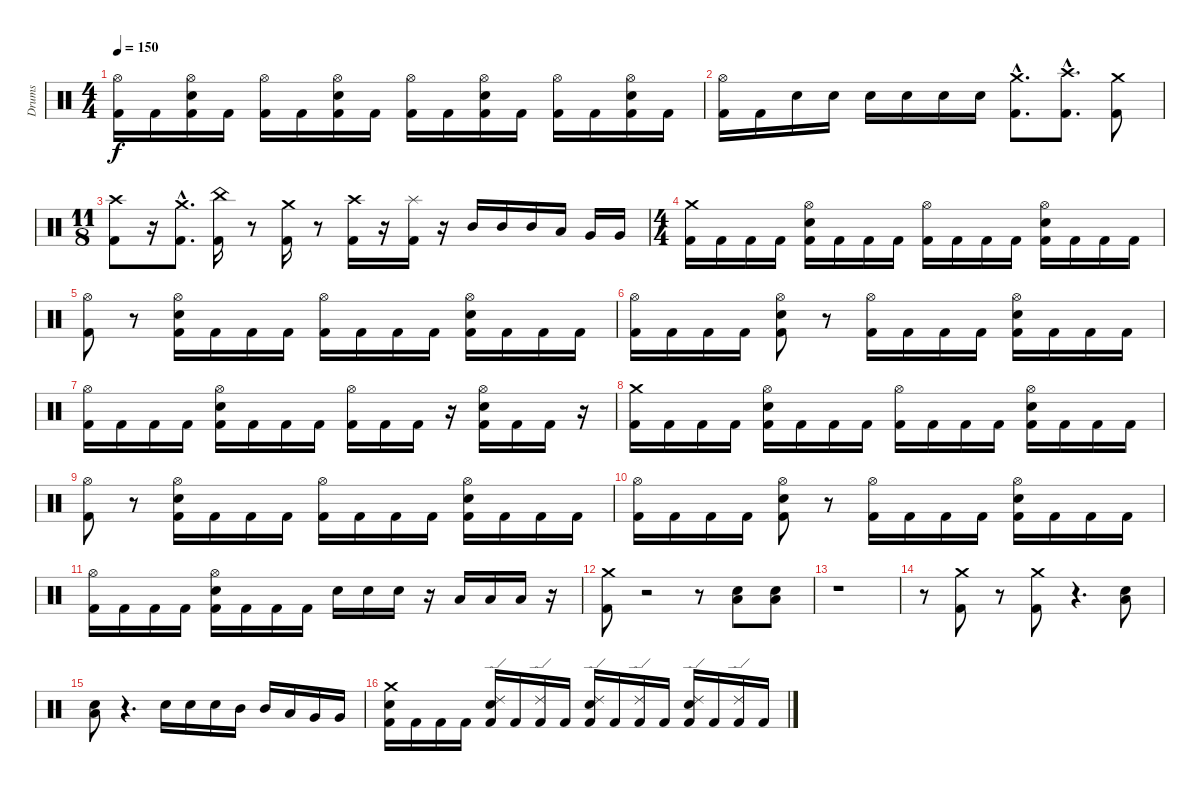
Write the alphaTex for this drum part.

\track ("Drums" "Drums") {instrument percussion}
\staff {score}
\articulation defaults
\ts (4 4)
\tempo 150
\clef neutral
\ks c
("Hi-Hat (open)" "Kick (hit) 2").16{dy f} "Kick (hit) 2".16 ("Hi-Hat (open)" "Electric Snare (hit)" "Kick (hit) 2").16 "Kick (hit) 2".16 ("Hi-Hat (open)" "Kick (hit) 2").16 "Kick (hit) 2".16 ("Hi-Hat (open)" "Electric Snare (hit)" "Kick (hit) 2").16 "Kick (hit) 2".16 ("Hi-Hat (open)" "Kick (hit) 2").16 "Kick (hit) 2".16 ("Hi-Hat (open)" "Electric Snare (hit)" "Kick (hit) 2").16 "Kick (hit) 2".16 ("Hi-Hat (open)" "Kick (hit) 2").16 "Kick (hit) 2".16 ("Hi-Hat (open)" "Electric Snare (hit)" "Kick (hit) 2").16 "Kick (hit) 2".16 |
("Hi-Hat (open)" "Kick (hit) 2").16 "Kick (hit) 2".16 "Electric Snare (hit)".16 "Electric Snare (hit)".16 "Electric Snare (hit)".16 "Electric Snare (hit)".16 "Electric Snare (hit)".16 "Electric Snare (hit)".16 ("Crash medium (hit)" "Kick (hit) 2"{hac}).8{d} ("Crash high (hit)" "Kick (hit) 2"{hac}).8{d} ("Crash medium (hit)" "Kick (hit) 2").8 |
\ts (11 8)
("Crash high (hit)" "Kick (hit) 2").8 r.16 ("Crash medium (hit)" "Kick (hit) 2"{hac}).8{d} ("China (hit)" "Kick (hit) 2").16 r.8 ("Crash medium (hit)" "Kick (hit) 2").16 r.8 ("Crash high (hit)" "Kick (hit) 2").16 r.16 ("Splash (hit)" "Kick (hit) 2").16 r.16 "Mid Tom (hit)".16 "Mid Tom (hit)".16 "Mid Tom (hit)".16 "Low Tom (hit)".16 "Very Low Tom (hit)".16 "Very Low Tom (hit)".16 |
\ts (4 4)
("Crash medium (hit)" "Kick (hit) 2").16 "Kick (hit) 2".16 "Kick (hit) 2".16 "Kick (hit) 2".16 ("Hi-Hat (open)" "Electric Snare (hit)" "Kick (hit) 2").16 "Kick (hit) 2".16 "Kick (hit) 2".16 "Kick (hit) 2".16 ("Hi-Hat (open)" "Kick (hit) 2").16 "Kick (hit) 2".16 "Kick (hit) 2".16 "Kick (hit) 2".16 ("Hi-Hat (open)" "Electric Snare (hit)" "Kick (hit) 2").16 "Kick (hit) 2".16 "Kick (hit) 2".16 "Kick (hit) 2".16 |
("Hi-Hat (open)" "Kick (hit) 2").8 r.8 ("Electric Snare (hit)" "Hi-Hat (open)" "Kick (hit) 2").16 "Kick (hit) 2".16 "Kick (hit) 2".16 "Kick (hit) 2".16 ("Hi-Hat (open)" "Kick (hit) 2").16 "Kick (hit) 2".16 "Kick (hit) 2".16 "Kick (hit) 2".16 ("Electric Snare (hit)" "Hi-Hat (open)" "Kick (hit) 2").16 "Kick (hit) 2".16 "Kick (hit) 2".16 "Kick (hit) 2".16 |
("Hi-Hat (open)" "Kick (hit) 2").16 "Kick (hit) 2".16 "Kick (hit) 2".16 "Kick (hit) 2".16 ("Electric Snare (hit)" "Hi-Hat (open)" "Kick (hit) 2").8 r.8 ("Hi-Hat (open)" "Kick (hit) 2").16 "Kick (hit) 2".16 "Kick (hit) 2".16 "Kick (hit) 2".16 ("Hi-Hat (open)" "Electric Snare (hit)" "Kick (hit) 2").16 "Kick (hit) 2".16 "Kick (hit) 2".16 "Kick (hit) 2".16 |
("Hi-Hat (open)" "Kick (hit) 2").16 "Kick (hit) 2".16 "Kick (hit) 2".16 "Kick (hit) 2".16 ("Hi-Hat (open)" "Electric Snare (hit)" "Kick (hit) 2").16 "Kick (hit) 2".16 "Kick (hit) 2".16 "Kick (hit) 2".16 ("Hi-Hat (open)" "Kick (hit) 2").16 "Kick (hit) 2".16 "Kick (hit) 2".16 r.16 ("Electric Snare (hit)" "Hi-Hat (open)" "Kick (hit) 2").16 "Kick (hit) 2".16 "Kick (hit) 2".16 r.16 |
("Crash medium (hit)" "Kick (hit) 2").16 "Kick (hit) 2".16 "Kick (hit) 2".16 "Kick (hit) 2".16 ("Hi-Hat (open)" "Electric Snare (hit)" "Kick (hit) 2").16 "Kick (hit) 2".16 "Kick (hit) 2".16 "Kick (hit) 2".16 ("Hi-Hat (open)" "Kick (hit) 2").16 "Kick (hit) 2".16 "Kick (hit) 2".16 "Kick (hit) 2".16 ("Hi-Hat (open)" "Electric Snare (hit)" "Kick (hit) 2").16 "Kick (hit) 2".16 "Kick (hit) 2".16 "Kick (hit) 2".16 |
("Hi-Hat (open)" "Kick (hit) 2").8 r.8 ("Electric Snare (hit)" "Hi-Hat (open)" "Kick (hit) 2").16 "Kick (hit) 2".16 "Kick (hit) 2".16 "Kick (hit) 2".16 ("Hi-Hat (open)" "Kick (hit) 2").16 "Kick (hit) 2".16 "Kick (hit) 2".16 "Kick (hit) 2".16 ("Electric Snare (hit)" "Hi-Hat (open)" "Kick (hit) 2").16 "Kick (hit) 2".16 "Kick (hit) 2".16 "Kick (hit) 2".16 |
("Hi-Hat (open)" "Kick (hit) 2").16 "Kick (hit) 2".16 "Kick (hit) 2".16 "Kick (hit) 2".16 ("Electric Snare (hit)" "Hi-Hat (open)" "Kick (hit) 2").8 r.8 ("Hi-Hat (open)" "Kick (hit) 2").16 "Kick (hit) 2".16 "Kick (hit) 2".16 "Kick (hit) 2".16 ("Hi-Hat (open)" "Electric Snare (hit)" "Kick (hit) 2").16 "Kick (hit) 2".16 "Kick (hit) 2".16 "Kick (hit) 2".16 |
("Hi-Hat (open)" "Kick (hit) 2").16 "Kick (hit) 2".16 "Kick (hit) 2".16 "Kick (hit) 2".16 ("Hi-Hat (open)" "Electric Snare (hit)" "Kick (hit) 2").16 "Kick (hit) 2".16 "Kick (hit) 2".16 "Kick (hit) 2".16 "Electric Snare (hit)".16 "Electric Snare (hit)".16 "Electric Snare (hit)".16 r.16 "Low Tom (hit)".16 "Low Tom (hit)".16 "Low Tom (hit)".16 r.16 |
("Crash medium (hit)" "Kick (hit) 2").8 r.2 r.8 ("Low Tom (hit)" "Electric Snare (hit)").8 ("Low Tom (hit)" "Electric Snare (hit)").8 |
r.1 |
r.8 ("Crash medium (hit)" "Kick (hit) 2").8 r.8 ("Crash medium (hit)" "Kick (hit) 2").8 r.4{d} ("Low Tom (hit)" "Electric Snare (hit)").8 |
("Low Tom (hit)" "Electric Snare (hit)").8 r.4{d} "Electric Snare (hit)".16 "Electric Snare (hit)".16 "Electric Snare (hit)".16 "Mid Tom (hit)".16 "Mid Tom (hit)".16 "Low Tom (hit)".16 "Very Low Tom (hit)".16 "Very Low Tom (hit)".16 |
("Crash medium (hit)" "Electric Snare (hit)" "Kick (hit) 2").16 "Kick (hit) 2".16 "Kick (hit) 2".16 "Kick (hit) 2".16 ("Ride (edge) 2" "Electric Snare (hit)" "Kick (hit) 2").16 "Kick (hit) 2".16 ("Ride (edge) 2" "Kick (hit) 2").16 "Kick (hit) 2".16 ("Ride (edge) 2" "Electric Snare (hit)" "Kick (hit) 2").16 "Kick (hit) 2".16 ("Ride (edge) 2" "Kick (hit) 2").16 "Kick (hit) 2".16 ("Ride (edge) 2" "Electric Snare (hit)" "Kick (hit) 2").16 "Kick (hit) 2".16 ("Ride (edge) 2" "Kick (hit) 2").16 "Kick (hit) 2".16
